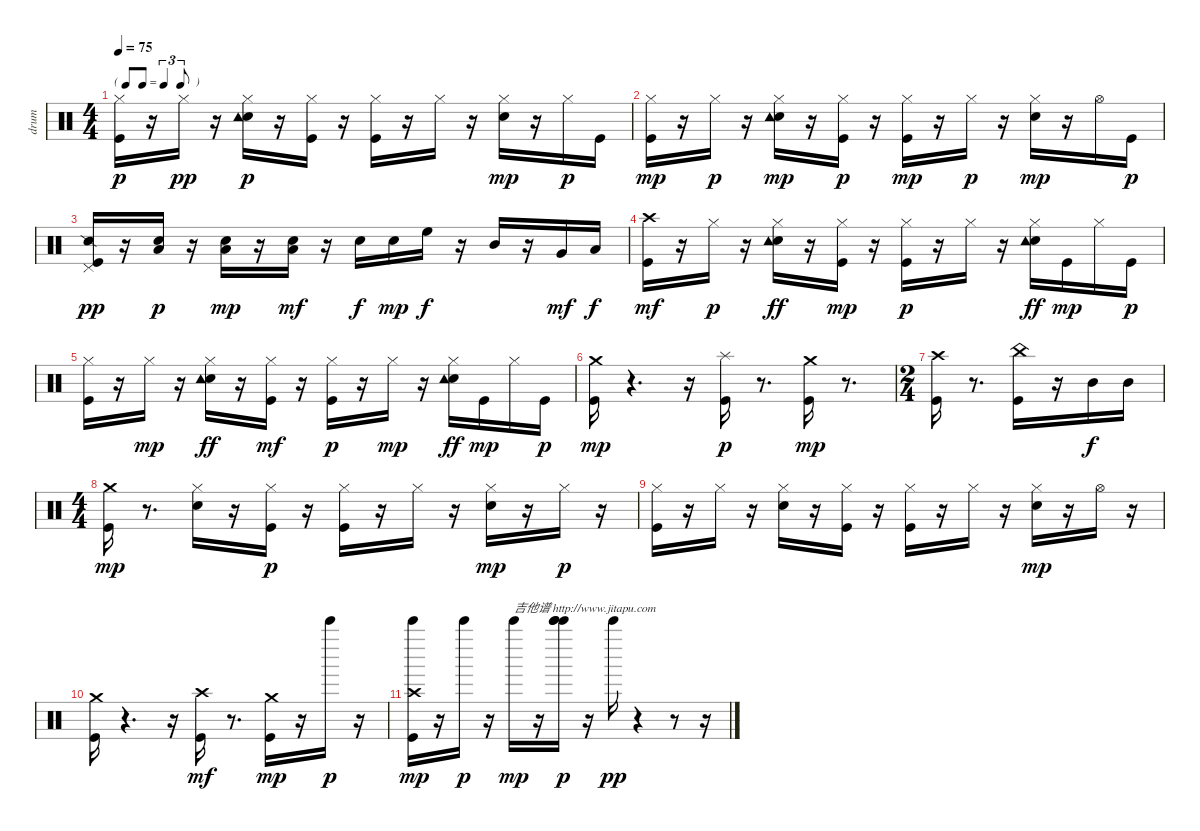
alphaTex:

\track ("drum" "drum") {instrument percussion}
\staff {score}
\articulation defaults
\ts (4 4)
\tf triplet8th
\tempo 75
\clef neutral
\ks c
("Hi-Hat (closed)" "Kick (hit)").16{dy p} r.16 "Hi-Hat (closed)".16{dy pp} r.16 ("Hi-Hat (closed)" "Snare (hit) 2" "Tambourine (hit)").16{dy p} r.16 ("Hi-Hat (closed)" "Kick (hit)").16 r.16 ("Hi-Hat (closed)" "Kick (hit)").16 r.16 "Hi-Hat (closed)".16 r.16 ("Hi-Hat (closed)" "Snare (hit) 2").16{dy mp} r.16 "Hi-Hat (closed)".16{dy p} "Kick (hit)".16 |
("Hi-Hat (closed)" "Kick (hit)").16{dy mp} r.16 "Hi-Hat (closed)".16{dy p} r.16 ("Hi-Hat (closed)" "Snare (hit) 2" "Tambourine (hit)").16{dy mp} r.16 ("Hi-Hat (closed)" "Kick (hit)").16{dy p} r.16 ("Hi-Hat (closed)" "Kick (hit)").16{dy mp} r.16 "Hi-Hat (closed)".16{dy p} r.16 ("Hi-Hat (closed)" "Snare (hit) 2").16{dy mp} r.16 "Hi-Hat (open)".16 "Kick (hit)".16{dy p} |
("Snare (side stick) 2" "Kick (hit)" "Pedal Hi-Hat (hit)").16{dy pp} r.16 ("Snare (hit) 2" "Low Floor Tom (hit)").16{dy p} r.16 ("Snare (hit) 2" "Low Floor Tom (hit)").16{dy mp} r.16 ("Snare (hit) 2" "Low Floor Tom (hit)").16{dy mf} r.16 "Snare (hit) 2".16{dy f} "Snare (hit) 2".16{dy mp} "High Floor Tom (hit)".16{dy f} r.16 "Mid Tom (hit)".16 r.16 "Very Low Tom (hit)".16{dy mf} "Low Floor Tom (hit)".16{dy f} |
("Crash high (hit)" "Kick (hit)").16{dy mf} r.16 "Hi-Hat (closed)".16{dy p} r.16 ("Hi-Hat (closed)" "Snare (hit) 2" "Tambourine (hit)").16{dy ff} r.16 ("Hi-Hat (closed)" "Kick (hit)").16{dy mp} r.16 ("Hi-Hat (closed)" "Kick (hit)").16{dy p} r.16 "Hi-Hat (closed)".16 r.16 ("Hi-Hat (closed)" "Snare (hit) 2" "Tambourine (hit)").16{dy ff} "Kick (hit)".16{dy mp} "Hi-Hat (closed)".16 "Kick (hit)".16{dy p} |
("Hi-Hat (closed)" "Kick (hit)").16 r.16 "Hi-Hat (closed)".16{dy mp} r.16 ("Hi-Hat (closed)" "Snare (hit) 2" "Tambourine (hit)").16{dy ff} r.16 ("Hi-Hat (closed)" "Kick (hit)").16{dy mf} r.16 ("Hi-Hat (closed)" "Kick (hit)").16{dy p} r.16 "Hi-Hat (closed)".16{dy mp} r.16 ("Hi-Hat (closed)" "Snare (hit) 2" "Tambourine (hit)").16{dy ff} "Kick (hit)".16{dy mp} "Hi-Hat (closed)".16 "Kick (hit)".16{dy p} |
("Crash medium (hit)" "Kick (hit)").16{dy mp} r.4{d} r.16 ("Kick (hit)" "Splash (hit)").16{dy p} r.8{d} ("Crash medium (hit)" "Kick (hit)").16{dy mp} r.8{d} |
\ts (2 4)
("Crash high (hit)" "Kick (hit)").16 r.8{d} ("China (hit)" "Kick (hit)").16 r.16 "Mid Tom (hit)".16{dy f} "Mid Tom (hit)".16 |
\ts (4 4)
("Crash medium (hit)" "Kick (hit)").16{dy mp} r.8{d} ("Hi-Hat (closed)" "Snare (hit) 2").16 r.16 ("Hi-Hat (closed)" "Kick (hit)").16{dy p} r.16 ("Hi-Hat (closed)" "Kick (hit)").16 r.16 "Hi-Hat (closed)".16 r.16 ("Hi-Hat (closed)" "Snare (hit) 2").16{dy mp} r.16 "Hi-Hat (closed)".16{dy p} r.16 |
("Hi-Hat (closed)" "Kick (hit)").16 r.16 "Hi-Hat (closed)".16 r.16 ("Hi-Hat (closed)" "Snare (hit) 2").16 r.16 ("Hi-Hat (closed)" "Kick (hit)").16 r.16 ("Hi-Hat (closed)" "Kick (hit)").16 r.16 "Hi-Hat (closed)".16 r.16 ("Hi-Hat (closed)" "Snare (hit) 2").16{dy mp} r.16 "Hi-Hat (open)".16 r.16 |
("Crash medium (hit)" "Kick (hit)").16 r.4{d} r.16 ("Crash high (hit)" "Kick (hit)").16{dy mf} r.8{d} ("Crash medium (hit)" "Kick (hit)").16{dy mp} r.16 "Bell Tree (hit)".16{dy p} r.16 |
("Crash high (hit)" "Kick (hit)" "Bell Tree (hit)").16{dy mp} r.16 "Bell Tree (hit)".16{dy p} r.16 "Bell Tree (hit)".16{txt "吉他谱 http://www.jitapu.com" dy mp} r.16 ("Bell Tree (hit)" "Bell Tree (hit)" "Bell Tree (hit)").16{dy p balance 9} r.16 "Bell Tree (hit)".16{dy pp balance 6} r.4 r.8 r.16
